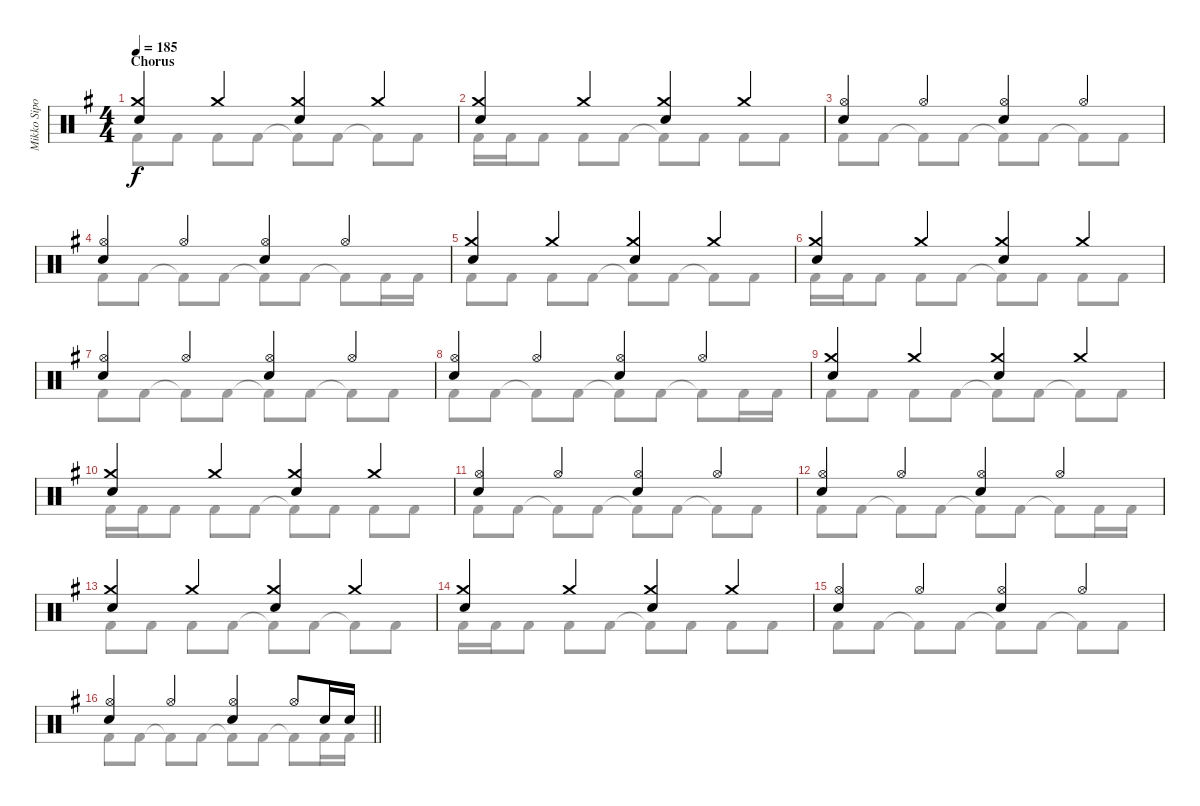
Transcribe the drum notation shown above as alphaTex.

\track ("Mikko Sipola (drums)" "Mikko Sipo") {instrument percussion}
\staff {score}
\articulation defaults
\voice
\ts (4 4)
\section ("" "Chorus")
\tempo 185
\clef neutral
\ks eminor
("Crash medium (hit)" "Electric Snare (hit)").4{dy f} "Crash medium (hit)".4 ("Crash medium (hit)" "Electric Snare (hit)").4 "Crash medium (hit)".4 |
("Crash medium (hit)" "Electric Snare (hit)").4 "Crash medium (hit)".4 ("Crash medium (hit)" "Electric Snare (hit)").4 "Crash medium (hit)".4 |
("Hi-Hat (open)" "Electric Snare (hit)").4 "Hi-Hat (open)".4 ("Hi-Hat (open)" "Electric Snare (hit)").4 "Hi-Hat (open)".4 |
("Hi-Hat (open)" "Electric Snare (hit)").4 "Hi-Hat (open)".4 ("Hi-Hat (open)" "Electric Snare (hit)").4 "Hi-Hat (open)".4 |
("Crash medium (hit)" "Electric Snare (hit)").4 "Crash medium (hit)".4 ("Crash medium (hit)" "Electric Snare (hit)").4 "Crash medium (hit)".4 |
("Crash medium (hit)" "Electric Snare (hit)").4 "Crash medium (hit)".4 ("Crash medium (hit)" "Electric Snare (hit)").4 "Crash medium (hit)".4 |
("Hi-Hat (open)" "Electric Snare (hit)").4 "Hi-Hat (open)".4 ("Hi-Hat (open)" "Electric Snare (hit)").4 "Hi-Hat (open)".4 |
("Hi-Hat (open)" "Electric Snare (hit)").4 "Hi-Hat (open)".4 ("Hi-Hat (open)" "Electric Snare (hit)").4 "Hi-Hat (open)".4 |
("Crash medium (hit)" "Electric Snare (hit)").4 "Crash medium (hit)".4 ("Crash medium (hit)" "Electric Snare (hit)").4 "Crash medium (hit)".4 |
("Crash medium (hit)" "Electric Snare (hit)").4 "Crash medium (hit)".4 ("Crash medium (hit)" "Electric Snare (hit)").4 "Crash medium (hit)".4 |
("Hi-Hat (open)" "Electric Snare (hit)").4 "Hi-Hat (open)".4 ("Hi-Hat (open)" "Electric Snare (hit)").4 "Hi-Hat (open)".4 |
("Hi-Hat (open)" "Electric Snare (hit)").4 "Hi-Hat (open)".4 ("Hi-Hat (open)" "Electric Snare (hit)").4 "Hi-Hat (open)".4 |
("Crash medium (hit)" "Electric Snare (hit)").4 "Crash medium (hit)".4 ("Crash medium (hit)" "Electric Snare (hit)").4 "Crash medium (hit)".4 |
("Crash medium (hit)" "Electric Snare (hit)").4 "Crash medium (hit)".4 ("Crash medium (hit)" "Electric Snare (hit)").4 "Crash medium (hit)".4 |
("Hi-Hat (open)" "Electric Snare (hit)").4 "Hi-Hat (open)".4 ("Hi-Hat (open)" "Electric Snare (hit)").4 "Hi-Hat (open)".4 |
\barLineRight lightlight
("Hi-Hat (open)" "Electric Snare (hit)").4 "Hi-Hat (open)".4 ("Hi-Hat (open)" "Electric Snare (hit)").4 "Hi-Hat (open)".8 "Electric Snare (hit)".16 "Electric Snare (hit)".16
\voice
\clef neutral
\ottava regular
\simile none
\ks eminor "Kick (hit) 2".8{dy f} "Kick (hit) 2".8 "Kick (hit) 2".8 "Kick (hit) 2".8 "Kick (hit) 2"{t}.8 "Kick (hit) 2".8 "Kick (hit) 2"{t}.8 "Kick (hit) 2".8
|
"Kick (hit) 2".16 "Kick (hit) 2".16 "Kick (hit) 2".8 "Kick (hit) 2".8 "Kick (hit) 2".8 "Kick (hit) 2"{t}.8 "Kick (hit) 2".8 "Kick (hit) 2".8 "Kick (hit) 2".8 |
"Kick (hit) 2".8 "Kick (hit) 2".8 "Kick (hit) 2"{t}.8 "Kick (hit) 2".8 "Kick (hit) 2"{t}.8 "Kick (hit) 2".8 "Kick (hit) 2"{t}.8 "Kick (hit) 2".8 |
"Kick (hit) 2".8 "Kick (hit) 2".8 "Kick (hit) 2"{t}.8 "Kick (hit) 2".8 "Kick (hit) 2"{t}.8 "Kick (hit) 2".8 "Kick (hit) 2"{t}.8 "Kick (hit) 2".16 "Kick (hit) 2".16 |
"Kick (hit) 2".8 "Kick (hit) 2".8 "Kick (hit) 2".8 "Kick (hit) 2".8 "Kick (hit) 2"{t}.8 "Kick (hit) 2".8 "Kick (hit) 2"{t}.8 "Kick (hit) 2".8 |
"Kick (hit) 2".16 "Kick (hit) 2".16 "Kick (hit) 2".8 "Kick (hit) 2".8 "Kick (hit) 2".8 "Kick (hit) 2"{t}.8 "Kick (hit) 2".8 "Kick (hit) 2".8 "Kick (hit) 2".8 |
"Kick (hit) 2".8 "Kick (hit) 2".8 "Kick (hit) 2"{t}.8 "Kick (hit) 2".8 "Kick (hit) 2"{t}.8 "Kick (hit) 2".8 "Kick (hit) 2"{t}.8 "Kick (hit) 2".8 |
"Kick (hit) 2".8 "Kick (hit) 2".8 "Kick (hit) 2"{t}.8 "Kick (hit) 2".8 "Kick (hit) 2"{t}.8 "Kick (hit) 2".8 "Kick (hit) 2"{t}.8 "Kick (hit) 2".16 "Kick (hit) 2".16 |
"Kick (hit) 2".8 "Kick (hit) 2".8 "Kick (hit) 2".8 "Kick (hit) 2".8 "Kick (hit) 2"{t}.8 "Kick (hit) 2".8 "Kick (hit) 2"{t}.8 "Kick (hit) 2".8 |
"Kick (hit) 2".16 "Kick (hit) 2".16 "Kick (hit) 2".8 "Kick (hit) 2".8 "Kick (hit) 2".8 "Kick (hit) 2"{t}.8 "Kick (hit) 2".8 "Kick (hit) 2".8 "Kick (hit) 2".8 |
"Kick (hit) 2".8 "Kick (hit) 2".8 "Kick (hit) 2"{t}.8 "Kick (hit) 2".8 "Kick (hit) 2"{t}.8 "Kick (hit) 2".8 "Kick (hit) 2"{t}.8 "Kick (hit) 2".8 |
"Kick (hit) 2".8 "Kick (hit) 2".8 "Kick (hit) 2"{t}.8 "Kick (hit) 2".8 "Kick (hit) 2"{t}.8 "Kick (hit) 2".8 "Kick (hit) 2"{t}.8 "Kick (hit) 2".16 "Kick (hit) 2".16 |
"Kick (hit) 2".8 "Kick (hit) 2".8 "Kick (hit) 2".8 "Kick (hit) 2".8 "Kick (hit) 2"{t}.8 "Kick (hit) 2".8 "Kick (hit) 2"{t}.8 "Kick (hit) 2".8 |
"Kick (hit) 2".16 "Kick (hit) 2".16 "Kick (hit) 2".8 "Kick (hit) 2".8 "Kick (hit) 2".8 "Kick (hit) 2"{t}.8 "Kick (hit) 2".8 "Kick (hit) 2".8 "Kick (hit) 2".8 |
"Kick (hit) 2".8 "Kick (hit) 2".8 "Kick (hit) 2"{t}.8 "Kick (hit) 2".8 "Kick (hit) 2"{t}.8 "Kick (hit) 2".8 "Kick (hit) 2"{t}.8 "Kick (hit) 2".8 |
\barLineRight lightlight "Kick (hit) 2".8 "Kick (hit) 2".8 "Kick (hit) 2"{t}.8 "Kick (hit) 2".8 "Kick (hit) 2"{t}.8 "Kick (hit) 2".8 "Kick (hit) 2"{t}.8 "Kick (hit) 2".16 "Kick (hit) 2".16
